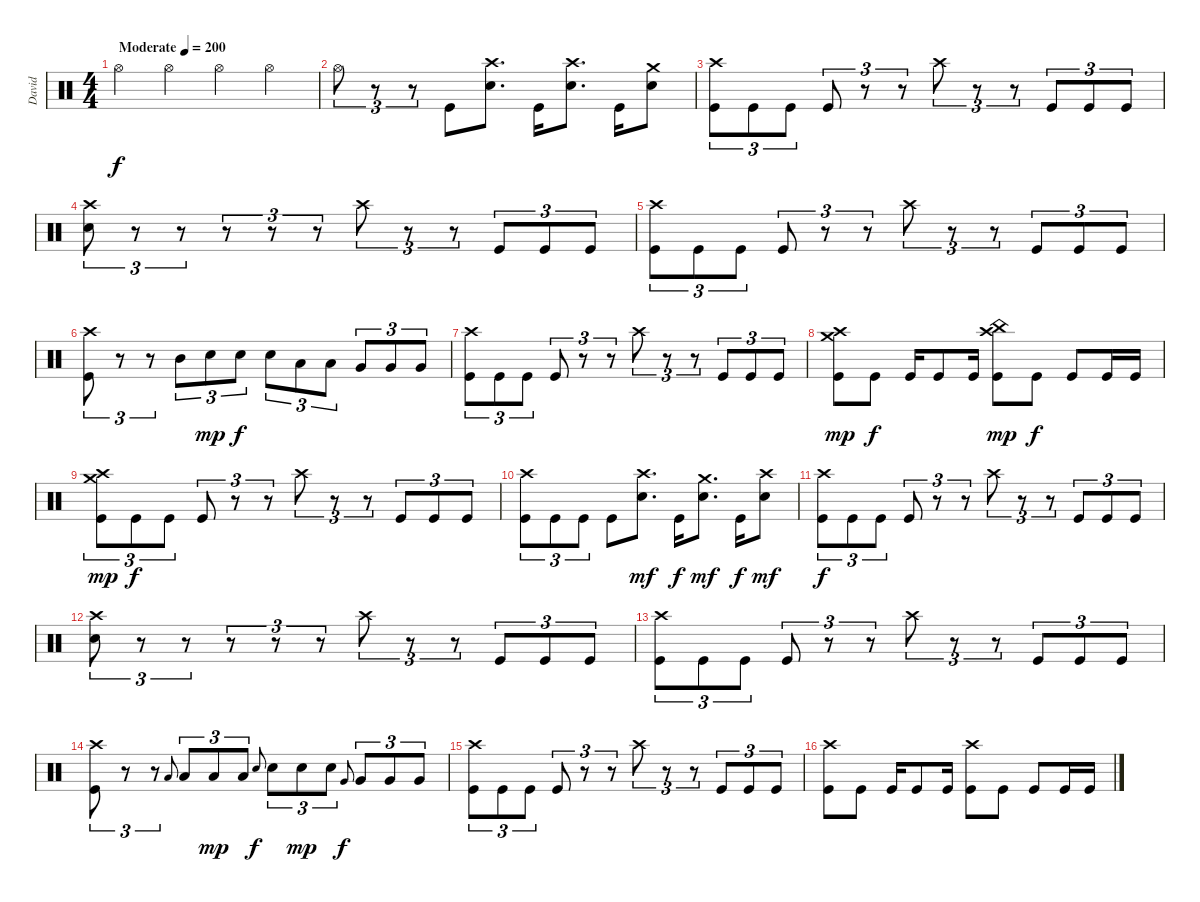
\track ("David" "David") {instrument percussion}
\staff {score}
\articulation defaults
\ts (4 4)
\tempo (200 "Moderate")
\clef neutral
\ks c "Hi-Hat (open)".4{dy f} "Hi-Hat (open)".4 "Hi-Hat (open)".4 "Hi-Hat (open)".4
|
"Hi-Hat (open)".8{tu (3 2)} r.8{tu (3 2)} r.8{tu (3 2)} "Kick (hit)".8 ("Crash high (hit)" "Electric Snare (hit)").8{d} "Kick (hit)".16 ("Crash high (hit)" "Electric Snare (hit)").8{d} "Kick (hit)".16 ("Crash medium (hit)" "Electric Snare (hit)").8 |
("Crash high (hit)" "Kick (hit)").8{tu (3 2)} "Kick (hit)".8{tu (3 2)} "Kick (hit)".8{tu (3 2)} "Kick (hit)".8{tu (3 2)} r.8{tu (3 2)} r.8{tu (3 2)} "Crash high (hit)".8{tu (3 2)} r.8{tu (3 2)} r.8{tu (3 2)} "Kick (hit)".8{tu (3 2)} "Kick (hit)".8{tu (3 2)} "Kick (hit)".8{tu (3 2)} |
("Crash high (hit)" "Electric Snare (hit)").8{tu (3 2)} r.8{tu (3 2)} r.8{tu (3 2)} r.8{tu (3 2)} r.8{tu (3 2)} r.8{tu (3 2)} "Crash high (hit)".8{tu (3 2)} r.8{tu (3 2)} r.8{tu (3 2)} "Kick (hit)".8{tu (3 2)} "Kick (hit)".8{tu (3 2)} "Kick (hit)".8{tu (3 2)} |
("Crash high (hit)" "Kick (hit)").8{tu (3 2)} "Kick (hit)".8{tu (3 2)} "Kick (hit)".8{tu (3 2)} "Kick (hit)".8{tu (3 2)} r.8{tu (3 2)} r.8{tu (3 2)} "Crash high (hit)".8{tu (3 2)} r.8{tu (3 2)} r.8{tu (3 2)} "Kick (hit)".8{tu (3 2)} "Kick (hit)".8{tu (3 2)} "Kick (hit)".8{tu (3 2)} |
("Crash high (hit)" "Kick (hit)").8{tu (3 2)} r.8{tu (3 2)} r.8{tu (3 2)} "Mid Tom (hit)".8{tu (3 2)} "Electric Snare (hit)".8{tu (3 2) dy mp} "Electric Snare (hit)".8{tu (3 2) dy f} "Electric Snare (hit)".8{tu (3 2)} "Low Tom (hit)".8{tu (3 2)} "Low Tom (hit)".8{tu (3 2)} "Very Low Tom (hit)".8{tu (3 2)} "Very Low Tom (hit)".8{tu (3 2)} "Very Low Tom (hit)".8{tu (3 2)} |
("Crash high (hit)" "Kick (hit)").8{tu (3 2)} "Kick (hit)".8{tu (3 2)} "Kick (hit)".8{tu (3 2)} "Kick (hit)".8{tu (3 2)} r.8{tu (3 2)} r.8{tu (3 2)} "Crash high (hit)".8{tu (3 2)} r.8{tu (3 2)} r.8{tu (3 2)} "Kick (hit)".8{tu (3 2)} "Kick (hit)".8{tu (3 2)} "Kick (hit)".8{tu (3 2)} |
("Crash high (hit)" "Crash medium (hit)" "Kick (hit)").8{dy mp} "Kick (hit)".8{dy f} "Kick (hit)".16 "Kick (hit)".8 "Kick (hit)".16 ("Crash high (hit)" "China (hit)" "Kick (hit)").8{dy mp} "Kick (hit)".8{dy f} "Kick (hit)".8 "Kick (hit)".16 "Kick (hit)".16 |
("Crash medium (hit)" "Crash high (hit)" "Kick (hit)").8{tu (3 2) dy mp} "Kick (hit)".8{tu (3 2) dy f} "Kick (hit)".8{tu (3 2)} "Kick (hit)".8{tu (3 2)} r.8{tu (3 2)} r.8{tu (3 2)} "Crash high (hit)".8{tu (3 2)} r.8{tu (3 2)} r.8{tu (3 2)} "Kick (hit)".8{tu (3 2)} "Kick (hit)".8{tu (3 2)} "Kick (hit)".8{tu (3 2)} |
("Crash high (hit)" "Kick (hit)").8{tu (3 2)} "Kick (hit)".8{tu (3 2)} "Kick (hit)".8{tu (3 2)} "Kick (hit)".8 ("Crash high (hit)" "Electric Snare (hit)").8{d dy mf} "Kick (hit)".16{dy f} ("Crash medium (hit)" "Electric Snare (hit)").8{d dy mf} "Kick (hit)".16{dy f} ("Crash high (hit)" "Electric Snare (hit)").8{dy mf} |
("Crash high (hit)" "Kick (hit)").8{tu (3 2) dy f} "Kick (hit)".8{tu (3 2)} "Kick (hit)".8{tu (3 2)} "Kick (hit)".8{tu (3 2)} r.8{tu (3 2)} r.8{tu (3 2)} "Crash high (hit)".8{tu (3 2)} r.8{tu (3 2)} r.8{tu (3 2)} "Kick (hit)".8{tu (3 2)} "Kick (hit)".8{tu (3 2)} "Kick (hit)".8{tu (3 2)} |
("Crash high (hit)" "Electric Snare (hit)").8{tu (3 2)} r.8{tu (3 2)} r.8{tu (3 2)} r.8{tu (3 2)} r.8{tu (3 2)} r.8{tu (3 2)} "Crash high (hit)".8{tu (3 2)} r.8{tu (3 2)} r.8{tu (3 2)} "Kick (hit)".8{tu (3 2)} "Kick (hit)".8{tu (3 2)} "Kick (hit)".8{tu (3 2)} |
("Crash high (hit)" "Kick (hit)").8{tu (3 2)} "Kick (hit)".8{tu (3 2)} "Kick (hit)".8{tu (3 2)} "Kick (hit)".8{tu (3 2)} r.8{tu (3 2)} r.8{tu (3 2)} "Crash high (hit)".8{tu (3 2)} r.8{tu (3 2)} r.8{tu (3 2)} "Kick (hit)".8{tu (3 2)} "Kick (hit)".8{tu (3 2)} "Kick (hit)".8{tu (3 2)} |
("Crash high (hit)" "Kick (hit)").8{tu (3 2)} r.8{tu (3 2)} r.8{tu (3 2)} "Low Tom (hit)".8{gr onbeat} "Low Tom (hit)".8{tu (3 2)} "Low Tom (hit)".8{tu (3 2) dy mp} "Low Tom (hit)".8{tu (3 2)} "Electric Snare (hit)".8{gr onbeat dy f} "Electric Snare (hit)".8{tu (3 2)} "Electric Snare (hit)".8{tu (3 2) dy mp} "Electric Snare (hit)".8{tu (3 2)} "Very Low Tom (hit)".8{gr onbeat dy f} "Very Low Tom (hit)".8{tu (3 2)} "Very Low Tom (hit)".8{tu (3 2)} "Very Low Tom (hit)".8{tu (3 2)} |
("Crash high (hit)" "Kick (hit)").8{tu (3 2)} "Kick (hit)".8{tu (3 2)} "Kick (hit)".8{tu (3 2)} "Kick (hit)".8{tu (3 2)} r.8{tu (3 2)} r.8{tu (3 2)} "Crash high (hit)".8{tu (3 2)} r.8{tu (3 2)} r.8{tu (3 2)} "Kick (hit)".8{tu (3 2)} "Kick (hit)".8{tu (3 2)} "Kick (hit)".8{tu (3 2)} |
("Crash high (hit)" "Kick (hit)").8 "Kick (hit)".8 "Kick (hit)".16 "Kick (hit)".8 "Kick (hit)".16 ("Crash high (hit)" "Kick (hit)").8 "Kick (hit)".8 "Kick (hit)".8 "Kick (hit)".16 "Kick (hit)".16
